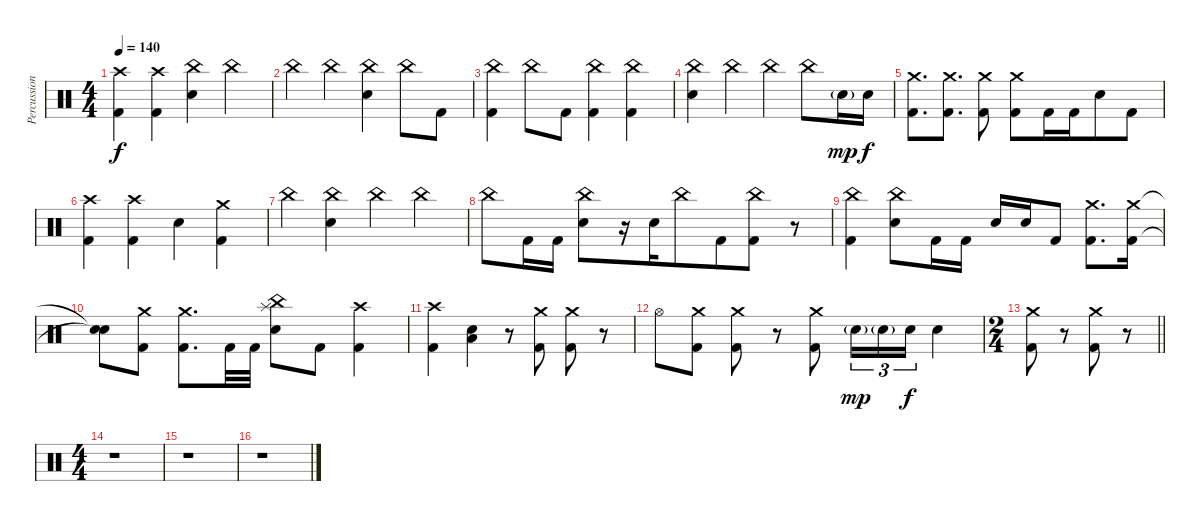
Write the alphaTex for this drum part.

\track ("Percussion" "Percussion") {instrument percussion}
\staff {score}
\articulation defaults
\ts (4 4)
\tempo 140
\clef neutral
\ks c
("Crash high (hit)" "Kick (hit) 2").4{dy f beam merge} ("Crash high (hit)" "Kick (hit) 2").4 ("China (hit)" "Electric Snare (hit)").4{beam merge} "China (hit)".4 |
"China (hit)".4 "China (hit)".4 ("China (hit)" "Electric Snare (hit)").4{beam merge} "China (hit)".8 "Kick (hit) 2".8 |
("China (hit)" "Kick (hit) 2").4 "China (hit)".8{beam merge} "Kick (hit) 2".8 ("China (hit)" "Kick (hit) 2").4{beam merge} ("China (hit)" "Kick (hit) 2").4 |
("China (hit)" "Electric Snare (hit)").4{beam merge} "China (hit)".4 "China (hit)".4{beam merge} "China (hit)".8 "Electric Snare (hit)"{g}.16{dy mp beam merge} "Electric Snare (hit)".16{dy f} |
("Crash medium (hit)" "Kick (hit) 2").8{d} ("Crash medium (hit)" "Kick (hit) 2").8{d} ("Crash medium (hit)" "Kick (hit) 2").8 ("Crash medium (hit)" "Kick (hit) 2").8 "Kick (hit) 2".16 "Kick (hit) 2".16{beam merge} "Electric Snare (hit)".8 "Kick (hit) 2".8 |
("Crash high (hit)" "Kick (hit) 2").4{beam merge} ("Crash high (hit)" "Kick (hit) 2").4 "Electric Snare (hit)".4{beam merge} ("Crash medium (hit)" "Kick (hit) 2").4 |
"China (hit)".4 ("China (hit)" "Electric Snare (hit)").4 "China (hit)".4{beam merge} "China (hit)".4 |
"China (hit)".8 "Kick (hit) 2".16{beam merge} "Kick (hit) 2".16 ("China (hit)" "Electric Snare (hit)").8 r.16 "Electric Snare (hit)".16{beam merge} "China (hit)".8{beam merge} "Kick (hit) 2".8{beam merge} ("China (hit)" "Kick (hit) 2").8{beam merge} r.8 |
("China (hit)" "Kick (hit) 2").4 ("China (hit)" "Electric Snare (hit)").8 "Kick (hit) 2".16 "Kick (hit) 2".16 "Electric Snare (hit)".16 "Electric Snare (hit)".16{beam merge} "Kick (hit) 2".8 ("Crash medium (hit)" "Kick (hit) 2").8{d} ("Crash medium (hit)" "Kick (hit) 2").16 |
("Snare (hit)"{t} "Snare (hit)"{t}).8 ("Crash medium (hit)" "Kick (hit) 2").8 ("Crash medium (hit)" "Kick (hit) 2").8{d beam merge} "Kick (hit) 2".32 "Kick (hit) 2".32 ("Splash (hit)" "China (hit)" "Electric Snare (hit)").8 "Kick (hit) 2".8 ("Crash high (hit)" "Kick (hit) 2").4 |
("Crash high (hit)" "Kick (hit) 2").4{beam merge} ("Electric Snare (hit)" "Low Floor Tom (hit)").4 r.8 ("Crash medium (hit)" "Kick (hit) 2").8 ("Crash medium (hit)" "Kick (hit) 2").8{beam merge} r.8 |
"Hi-Hat (open)".8{beam merge} ("Crash medium (hit)" "Kick (hit) 2").8 ("Crash medium (hit)" "Kick (hit) 2").8 r.8{beam merge} ("Crash medium (hit)" "Kick (hit) 2").8 "Electric Snare (hit)"{g}.16{tu (3 2) dy mp} "Electric Snare (hit)"{g}.16{tu (3 2)} "Electric Snare (hit)".16{tu (3 2) dy f} "Electric Snare (hit)".4 |
\ts (2 4)
\barLineRight lightlight
("Crash medium (hit)" "Kick (hit) 2").8 r.8{beam merge} ("Crash medium (hit)" "Kick (hit) 2").8 r.8 |
\ts (4 4)
r.1 |
r.1 |
r.1
